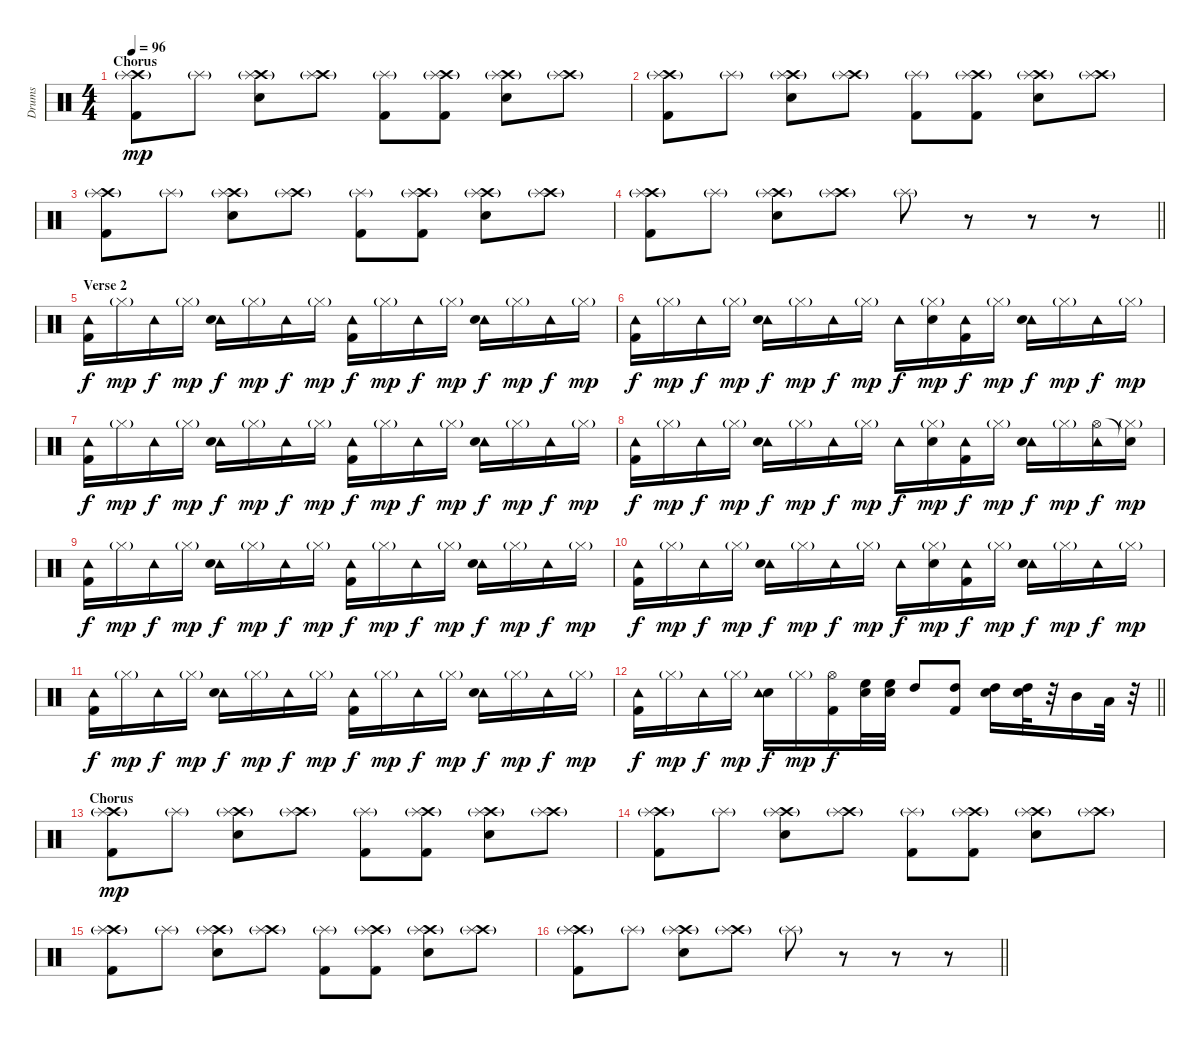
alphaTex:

\track ("Drums" "Drums") {instrument percussion}
\staff {score}
\articulation defaults
\ts (4 4)
\section ("" "Chorus")
\tempo 96
\clef neutral
\ks c
("Crash high (hit)" "Splash (hit)"{g} "Kick (hit) 2").8{dy mp} "Splash (hit)"{g}.8 ("Crash high (hit)" "Splash (hit)"{g} "Electric Snare (hit)").8 ("Crash high (hit)" "Splash (hit)"{g}).8 ("Splash (hit)"{g} "Kick (hit) 2").8 ("Crash high (hit)" "Splash (hit)"{g} "Kick (hit) 2").8 ("Crash high (hit)" "Splash (hit)"{g} "Electric Snare (hit)").8 ("Crash high (hit)" "Splash (hit)"{g}).8 |
("Crash high (hit)" "Splash (hit)"{g} "Kick (hit) 2").8 "Splash (hit)"{g}.8 ("Crash high (hit)" "Splash (hit)"{g} "Electric Snare (hit)").8 ("Crash high (hit)" "Splash (hit)"{g}).8 ("Splash (hit)"{g} "Kick (hit) 2").8 ("Crash high (hit)" "Splash (hit)"{g} "Kick (hit) 2").8 ("Crash high (hit)" "Splash (hit)"{g} "Electric Snare (hit)").8 ("Crash high (hit)" "Splash (hit)"{g}).8 |
("Crash high (hit)" "Splash (hit)"{g} "Kick (hit) 2").8 "Splash (hit)"{g}.8 ("Crash high (hit)" "Splash (hit)"{g} "Electric Snare (hit)").8 ("Crash high (hit)" "Splash (hit)"{g}).8 ("Splash (hit)"{g} "Kick (hit) 2").8 ("Crash high (hit)" "Splash (hit)"{g} "Kick (hit) 2").8 ("Crash high (hit)" "Splash (hit)"{g} "Electric Snare (hit)").8 ("Crash high (hit)" "Splash (hit)"{g}).8 |
\barLineRight lightlight
("Crash high (hit)" "Splash (hit)"{g} "Kick (hit) 2").8 "Splash (hit)"{g}.8 ("Crash high (hit)" "Splash (hit)"{g} "Electric Snare (hit)").8 ("Crash high (hit)" "Splash (hit)"{g}).8 "Splash (hit)"{g}.8 r.8 r.8 r.8 |
\section ("" "Verse 2")
("Tambourine (hit)" "Kick (hit) 2").16{dy f} "Hi-Hat (closed)"{g}.16{dy mp} "Tambourine (hit)".16{dy f} "Hi-Hat (closed)"{g}.16{dy mp} ("Tambourine (hit)" "Snare (hit) 2").16{dy f} "Hi-Hat (closed)"{g}.16{dy mp} "Tambourine (hit)".16{dy f} "Hi-Hat (closed)"{g}.16{dy mp} ("Tambourine (hit)" "Kick (hit) 2").16{dy f} "Hi-Hat (closed)"{g}.16{dy mp} "Tambourine (hit)".16{dy f} "Hi-Hat (closed)"{g}.16{dy mp} ("Tambourine (hit)" "Snare (hit) 2").16{dy f} "Hi-Hat (closed)"{g}.16{dy mp} "Tambourine (hit)".16{dy f} "Hi-Hat (closed)"{g}.16{dy mp} |
("Tambourine (hit)" "Kick (hit) 2").16{dy f} "Hi-Hat (closed)"{g}.16{dy mp} "Tambourine (hit)".16{dy f} "Hi-Hat (closed)"{g}.16{dy mp} ("Tambourine (hit)" "Snare (hit) 2").16{dy f} "Hi-Hat (closed)"{g}.16{dy mp} "Tambourine (hit)".16{dy f} "Hi-Hat (closed)"{g}.16{dy mp} "Tambourine (hit)".16{dy f} ("Hi-Hat (closed)"{g} "Snare (hit) 2").16{dy mp} ("Tambourine (hit)" "Kick (hit) 2").16{dy f} "Hi-Hat (closed)"{g}.16{dy mp} ("Tambourine (hit)" "Snare (hit) 2").16{dy f} "Hi-Hat (closed)"{g}.16{dy mp} "Tambourine (hit)".16{dy f} "Hi-Hat (closed)"{g}.16{dy mp} |
("Tambourine (hit)" "Kick (hit) 2").16{dy f} "Hi-Hat (closed)"{g}.16{dy mp} "Tambourine (hit)".16{dy f} "Hi-Hat (closed)"{g}.16{dy mp} ("Tambourine (hit)" "Snare (hit) 2").16{dy f} "Hi-Hat (closed)"{g}.16{dy mp} "Tambourine (hit)".16{dy f} "Hi-Hat (closed)"{g}.16{dy mp} ("Tambourine (hit)" "Kick (hit) 2").16{dy f} "Hi-Hat (closed)"{g}.16{dy mp} "Tambourine (hit)".16{dy f} "Hi-Hat (closed)"{g}.16{dy mp} ("Tambourine (hit)" "Snare (hit) 2").16{dy f} "Hi-Hat (closed)"{g}.16{dy mp} "Tambourine (hit)".16{dy f} "Hi-Hat (closed)"{g}.16{dy mp} |
("Tambourine (hit)" "Kick (hit) 2").16{dy f} "Hi-Hat (closed)"{g}.16{dy mp} "Tambourine (hit)".16{dy f} "Hi-Hat (closed)"{g}.16{dy mp} ("Tambourine (hit)" "Snare (hit) 2").16{dy f} "Hi-Hat (closed)"{g}.16{dy mp} "Tambourine (hit)".16{dy f} "Hi-Hat (closed)"{g}.16{dy mp} "Tambourine (hit)".16{dy f} ("Hi-Hat (closed)"{g} "Snare (hit) 2").16{dy mp} ("Tambourine (hit)" "Kick (hit) 2").16{dy f} "Hi-Hat (closed)"{g}.16{dy mp} ("Tambourine (hit)" "Snare (hit) 2").16{dy f} "Hi-Hat (closed)"{g}.16{dy mp} ("Tambourine (hit)" "Hi-Hat (open)").16{dy f} ("Hi-Hat (closed)"{g} "Snare (hit)"{t}).16{dy mp} |
("Tambourine (hit)" "Kick (hit) 2").16{dy f} "Hi-Hat (closed)"{g}.16{dy mp} "Tambourine (hit)".16{dy f} "Hi-Hat (closed)"{g}.16{dy mp} ("Tambourine (hit)" "Snare (hit) 2").16{dy f} "Hi-Hat (closed)"{g}.16{dy mp} "Tambourine (hit)".16{dy f} "Hi-Hat (closed)"{g}.16{dy mp} ("Tambourine (hit)" "Kick (hit) 2").16{dy f} "Hi-Hat (closed)"{g}.16{dy mp} "Tambourine (hit)".16{dy f} "Hi-Hat (closed)"{g}.16{dy mp} ("Tambourine (hit)" "Snare (hit) 2").16{dy f} "Hi-Hat (closed)"{g}.16{dy mp} "Tambourine (hit)".16{dy f} "Hi-Hat (closed)"{g}.16{dy mp} |
("Tambourine (hit)" "Kick (hit) 2").16{dy f} "Hi-Hat (closed)"{g}.16{dy mp} "Tambourine (hit)".16{dy f} "Hi-Hat (closed)"{g}.16{dy mp} ("Tambourine (hit)" "Snare (hit) 2").16{dy f} "Hi-Hat (closed)"{g}.16{dy mp} "Tambourine (hit)".16{dy f} "Hi-Hat (closed)"{g}.16{dy mp} "Tambourine (hit)".16{dy f} ("Hi-Hat (closed)"{g} "Snare (hit) 2").16{dy mp} ("Tambourine (hit)" "Kick (hit) 2").16{dy f} "Hi-Hat (closed)"{g}.16{dy mp} ("Tambourine (hit)" "Snare (hit) 2").16{dy f} "Hi-Hat (closed)"{g}.16{dy mp} "Tambourine (hit)".16{dy f} "Hi-Hat (closed)"{g}.16{dy mp} |
("Tambourine (hit)" "Kick (hit) 2").16{dy f} "Hi-Hat (closed)"{g}.16{dy mp} "Tambourine (hit)".16{dy f} "Hi-Hat (closed)"{g}.16{dy mp} ("Tambourine (hit)" "Snare (hit) 2").16{dy f} "Hi-Hat (closed)"{g}.16{dy mp} "Tambourine (hit)".16{dy f} "Hi-Hat (closed)"{g}.16{dy mp} ("Tambourine (hit)" "Kick (hit) 2").16{dy f} "Hi-Hat (closed)"{g}.16{dy mp} "Tambourine (hit)".16{dy f} "Hi-Hat (closed)"{g}.16{dy mp} ("Tambourine (hit)" "Snare (hit) 2").16{dy f} "Hi-Hat (closed)"{g}.16{dy mp} "Tambourine (hit)".16{dy f} "Hi-Hat (closed)"{g}.16{dy mp} |
\barLineRight lightlight
("Kick (hit) 2" "Tambourine (hit)").16{dy f} "Hi-Hat (closed)"{g}.16{dy mp} "Tambourine (hit)".16{dy f} "Hi-Hat (closed)"{g}.16{dy mp} ("Snare (hit) 2" "Tambourine (hit)").16{dy f} "Hi-Hat (closed)"{g}.16{dy mp} ("Kick (hit) 2" "Hi-Hat (open)").16{dy f} ("High Floor Tom (hit)" "Electric Snare (hit)").32 ("High Floor Tom (hit)" "Electric Snare (hit)").32 "High Tom (hit)".8 ("High Tom (hit)" "Kick (hit) 2").8 ("High Tom (hit)" "Electric Snare (hit)").16 ("High Tom (hit)" "Electric Snare (hit)").32 r.32 "Mid Tom (hit)".16 "Low Tom (hit)".32 r.32 |
\section ("" "Chorus")
("Crash high (hit)" "Splash (hit)"{g} "Kick (hit) 2").8{dy mp} "Splash (hit)"{g}.8 ("Crash high (hit)" "Splash (hit)"{g} "Electric Snare (hit)").8 ("Crash high (hit)" "Splash (hit)"{g}).8 ("Splash (hit)"{g} "Kick (hit) 2").8 ("Crash high (hit)" "Splash (hit)"{g} "Kick (hit) 2").8 ("Crash high (hit)" "Splash (hit)"{g} "Electric Snare (hit)").8 ("Crash high (hit)" "Splash (hit)"{g}).8 |
("Crash high (hit)" "Splash (hit)"{g} "Kick (hit) 2").8 "Splash (hit)"{g}.8 ("Crash high (hit)" "Splash (hit)"{g} "Electric Snare (hit)").8 ("Crash high (hit)" "Splash (hit)"{g}).8 ("Splash (hit)"{g} "Kick (hit) 2").8 ("Crash high (hit)" "Splash (hit)"{g} "Kick (hit) 2").8 ("Crash high (hit)" "Splash (hit)"{g} "Electric Snare (hit)").8 ("Crash high (hit)" "Splash (hit)"{g}).8 |
("Crash high (hit)" "Splash (hit)"{g} "Kick (hit) 2").8 "Splash (hit)"{g}.8 ("Crash high (hit)" "Splash (hit)"{g} "Electric Snare (hit)").8 ("Crash high (hit)" "Splash (hit)"{g}).8 ("Splash (hit)"{g} "Kick (hit) 2").8 ("Crash high (hit)" "Splash (hit)"{g} "Kick (hit) 2").8 ("Crash high (hit)" "Splash (hit)"{g} "Electric Snare (hit)").8 ("Crash high (hit)" "Splash (hit)"{g}).8 |
\barLineRight lightlight
("Crash high (hit)" "Splash (hit)"{g} "Kick (hit) 2").8 "Splash (hit)"{g}.8 ("Crash high (hit)" "Splash (hit)"{g} "Electric Snare (hit)").8 ("Crash high (hit)" "Splash (hit)"{g}).8 "Splash (hit)"{g}.8 r.8 r.8 r.8
